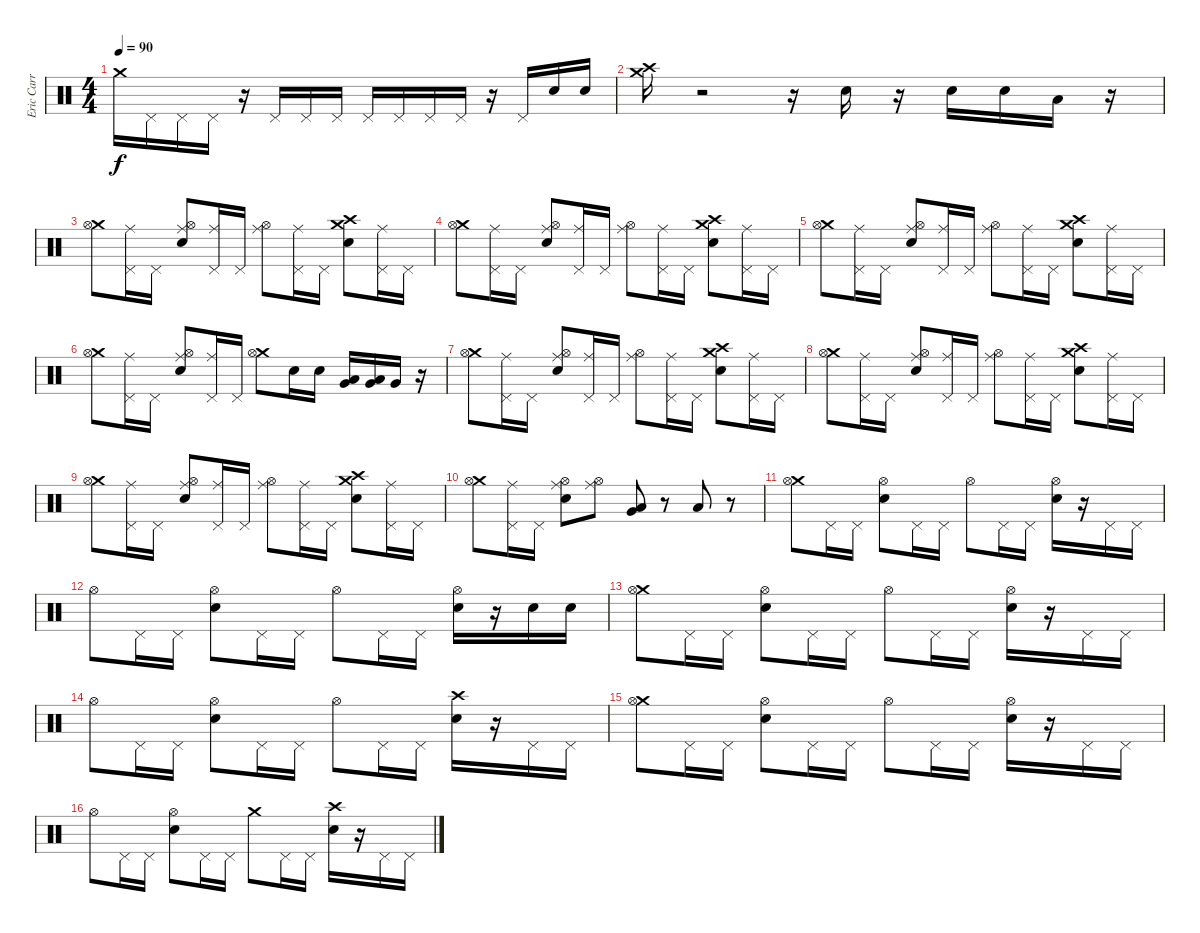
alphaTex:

\track ("Eric Carr" "Eric Carr") {instrument percussion}
\staff {score}
\articulation defaults
\ts (4 4)
\tempo 90
\clef neutral
\ks c "Crash medium (hit)".16{dy f} "Pedal Hi-Hat (hit)".16 "Pedal Hi-Hat (hit)".16 "Pedal Hi-Hat (hit)".16
r.16 "Pedal Hi-Hat (hit)".16 "Pedal Hi-Hat (hit)".16 "Pedal Hi-Hat (hit)".16 "Pedal Hi-Hat (hit)".16 "Pedal Hi-Hat (hit)".16 "Pedal Hi-Hat (hit)".16 "Pedal Hi-Hat (hit)".16 r.16 "Pedal Hi-Hat (hit)".16 "Electric Snare (hit)".16 "Electric Snare (hit)".16 |
("Crash medium (hit)" "Crash high (hit)").16 r.2 r.16 "Electric Snare (hit)".16 r.16 "Electric Snare (hit)".16 "Electric Snare (hit)".16 "Low Floor Tom (hit)".16 r.16 |
("Crash medium (hit)" "Hi-Hat (open)").8 ("Ride (middle)" "Pedal Hi-Hat (hit)").16 "Pedal Hi-Hat (hit)".16 ("Ride (middle)" "Hi-Hat (open)" "Electric Snare (hit)").8 ("Ride (middle)" "Pedal Hi-Hat (hit)").16 "Pedal Hi-Hat (hit)".16 ("Ride (middle)" "Hi-Hat (open)").8 ("Ride (middle)" "Pedal Hi-Hat (hit)").16 "Pedal Hi-Hat (hit)".16 ("Crash medium (hit)" "Crash high (hit)" "Electric Snare (hit)").8 ("Ride (middle)" "Pedal Hi-Hat (hit)").16 "Pedal Hi-Hat (hit)".16 |
("Crash medium (hit)" "Hi-Hat (open)").8 ("Ride (middle)" "Pedal Hi-Hat (hit)").16 "Pedal Hi-Hat (hit)".16 ("Ride (middle)" "Hi-Hat (open)" "Electric Snare (hit)").8 ("Ride (middle)" "Pedal Hi-Hat (hit)").16 "Pedal Hi-Hat (hit)".16 ("Ride (middle)" "Hi-Hat (open)").8 ("Ride (middle)" "Pedal Hi-Hat (hit)").16 "Pedal Hi-Hat (hit)".16 ("Crash medium (hit)" "Crash high (hit)" "Electric Snare (hit)").8 ("Ride (middle)" "Pedal Hi-Hat (hit)").16 "Pedal Hi-Hat (hit)".16 |
("Crash medium (hit)" "Hi-Hat (open)").8 ("Ride (middle)" "Pedal Hi-Hat (hit)").16 "Pedal Hi-Hat (hit)".16 ("Ride (middle)" "Hi-Hat (open)" "Electric Snare (hit)").8 ("Ride (middle)" "Pedal Hi-Hat (hit)").16 "Pedal Hi-Hat (hit)".16 ("Ride (middle)" "Hi-Hat (open)").8 ("Ride (middle)" "Pedal Hi-Hat (hit)").16 "Pedal Hi-Hat (hit)".16 ("Crash medium (hit)" "Crash high (hit)" "Electric Snare (hit)").8 ("Ride (middle)" "Pedal Hi-Hat (hit)").16 "Pedal Hi-Hat (hit)".16 |
("Crash medium (hit)" "Hi-Hat (open)").8 ("Ride (middle)" "Pedal Hi-Hat (hit)").16 "Pedal Hi-Hat (hit)".16 ("Ride (middle)" "Hi-Hat (open)" "Electric Snare (hit)").8 ("Ride (middle)" "Pedal Hi-Hat (hit)").16 "Pedal Hi-Hat (hit)".16 ("Crash medium (hit)" "Hi-Hat (open)").8 "Electric Snare (hit)".16 "Electric Snare (hit)".16 ("Low Tom (hit)" "Very Low Tom (hit)").16 ("Low Tom (hit)" "Very Low Tom (hit)").16 "Very Low Tom (hit)".16 r.16 |
("Crash medium (hit)" "Hi-Hat (open)").8 ("Ride (middle)" "Pedal Hi-Hat (hit)").16 "Pedal Hi-Hat (hit)".16 ("Ride (middle)" "Hi-Hat (open)" "Electric Snare (hit)").8 ("Ride (middle)" "Pedal Hi-Hat (hit)").16 "Pedal Hi-Hat (hit)".16 ("Ride (middle)" "Hi-Hat (open)").8 ("Ride (middle)" "Pedal Hi-Hat (hit)").16 "Pedal Hi-Hat (hit)".16 ("Crash medium (hit)" "Crash high (hit)" "Electric Snare (hit)").8 ("Ride (middle)" "Pedal Hi-Hat (hit)").16 "Pedal Hi-Hat (hit)".16 |
("Crash medium (hit)" "Hi-Hat (open)").8 ("Ride (middle)" "Pedal Hi-Hat (hit)").16 "Pedal Hi-Hat (hit)".16 ("Ride (middle)" "Hi-Hat (open)" "Electric Snare (hit)").8 ("Ride (middle)" "Pedal Hi-Hat (hit)").16 "Pedal Hi-Hat (hit)".16 ("Ride (middle)" "Hi-Hat (open)").8 ("Ride (middle)" "Pedal Hi-Hat (hit)").16 "Pedal Hi-Hat (hit)".16 ("Crash medium (hit)" "Crash high (hit)" "Electric Snare (hit)").8 ("Ride (middle)" "Pedal Hi-Hat (hit)").16 "Pedal Hi-Hat (hit)".16 |
("Crash medium (hit)" "Hi-Hat (open)").8 ("Ride (middle)" "Pedal Hi-Hat (hit)").16 "Pedal Hi-Hat (hit)".16 ("Ride (middle)" "Hi-Hat (open)" "Electric Snare (hit)").8 ("Ride (middle)" "Pedal Hi-Hat (hit)").16 "Pedal Hi-Hat (hit)".16 ("Ride (middle)" "Hi-Hat (open)").8 ("Ride (middle)" "Pedal Hi-Hat (hit)").16 "Pedal Hi-Hat (hit)".16 ("Crash medium (hit)" "Crash high (hit)" "Electric Snare (hit)").8 ("Ride (middle)" "Pedal Hi-Hat (hit)").16 "Pedal Hi-Hat (hit)".16 |
("Crash medium (hit)" "Hi-Hat (open)").8 ("Ride (middle)" "Pedal Hi-Hat (hit)").16 "Pedal Hi-Hat (hit)".16 ("Ride (middle)" "Hi-Hat (open)" "Electric Snare (hit)").8 ("Ride (middle)" "Hi-Hat (open)").8 ("Low Tom (hit)" "Very Low Tom (hit)").8 r.8 "Low Floor Tom (hit)".8 r.8 |
("Crash medium (hit)" "Hi-Hat (open)").8 "Pedal Hi-Hat (hit)".16 "Pedal Hi-Hat (hit)".16 ("Hi-Hat (open)" "Electric Snare (hit)").8 "Pedal Hi-Hat (hit)".16 "Pedal Hi-Hat (hit)".16 "Hi-Hat (open)".8 "Pedal Hi-Hat (hit)".16 "Pedal Hi-Hat (hit)".16 ("Hi-Hat (open)" "Electric Snare (hit)").16 r.16 "Pedal Hi-Hat (hit)".16 "Pedal Hi-Hat (hit)".16 |
"Hi-Hat (open)".8 "Pedal Hi-Hat (hit)".16 "Pedal Hi-Hat (hit)".16 ("Hi-Hat (open)" "Electric Snare (hit)").8 "Pedal Hi-Hat (hit)".16 "Pedal Hi-Hat (hit)".16 "Hi-Hat (open)".8 "Pedal Hi-Hat (hit)".16 "Pedal Hi-Hat (hit)".16 ("Hi-Hat (open)" "Electric Snare (hit)").16 r.16 "Electric Snare (hit)".16 "Electric Snare (hit)".16 |
("Crash medium (hit)" "Hi-Hat (open)").8 "Pedal Hi-Hat (hit)".16 "Pedal Hi-Hat (hit)".16 ("Hi-Hat (open)" "Electric Snare (hit)").8 "Pedal Hi-Hat (hit)".16 "Pedal Hi-Hat (hit)".16 "Hi-Hat (open)".8 "Pedal Hi-Hat (hit)".16 "Pedal Hi-Hat (hit)".16 ("Hi-Hat (open)" "Electric Snare (hit)").16 r.16 "Pedal Hi-Hat (hit)".16 "Pedal Hi-Hat (hit)".16 |
"Hi-Hat (open)".8 "Pedal Hi-Hat (hit)".16 "Pedal Hi-Hat (hit)".16 ("Hi-Hat (open)" "Electric Snare (hit)").8 "Pedal Hi-Hat (hit)".16 "Pedal Hi-Hat (hit)".16 "Hi-Hat (open)".8 "Pedal Hi-Hat (hit)".16 "Pedal Hi-Hat (hit)".16 ("Crash high (hit)" "Electric Snare (hit)").16 r.16 "Pedal Hi-Hat (hit)".16 "Pedal Hi-Hat (hit)".16 |
("Crash medium (hit)" "Hi-Hat (open)").8 "Pedal Hi-Hat (hit)".16 "Pedal Hi-Hat (hit)".16 ("Hi-Hat (open)" "Electric Snare (hit)").8 "Pedal Hi-Hat (hit)".16 "Pedal Hi-Hat (hit)".16 "Hi-Hat (open)".8 "Pedal Hi-Hat (hit)".16 "Pedal Hi-Hat (hit)".16 ("Hi-Hat (open)" "Electric Snare (hit)").16 r.16 "Pedal Hi-Hat (hit)".16 "Pedal Hi-Hat (hit)".16 |
"Hi-Hat (open)".8 "Pedal Hi-Hat (hit)".16 "Pedal Hi-Hat (hit)".16 ("Hi-Hat (open)" "Electric Snare (hit)").8 "Pedal Hi-Hat (hit)".16 "Pedal Hi-Hat (hit)".16 "Crash medium (hit)".8 "Pedal Hi-Hat (hit)".16 "Pedal Hi-Hat (hit)".16 ("Crash high (hit)" "Electric Snare (hit)").16 r.16 "Pedal Hi-Hat (hit)".16 "Pedal Hi-Hat (hit)".16
